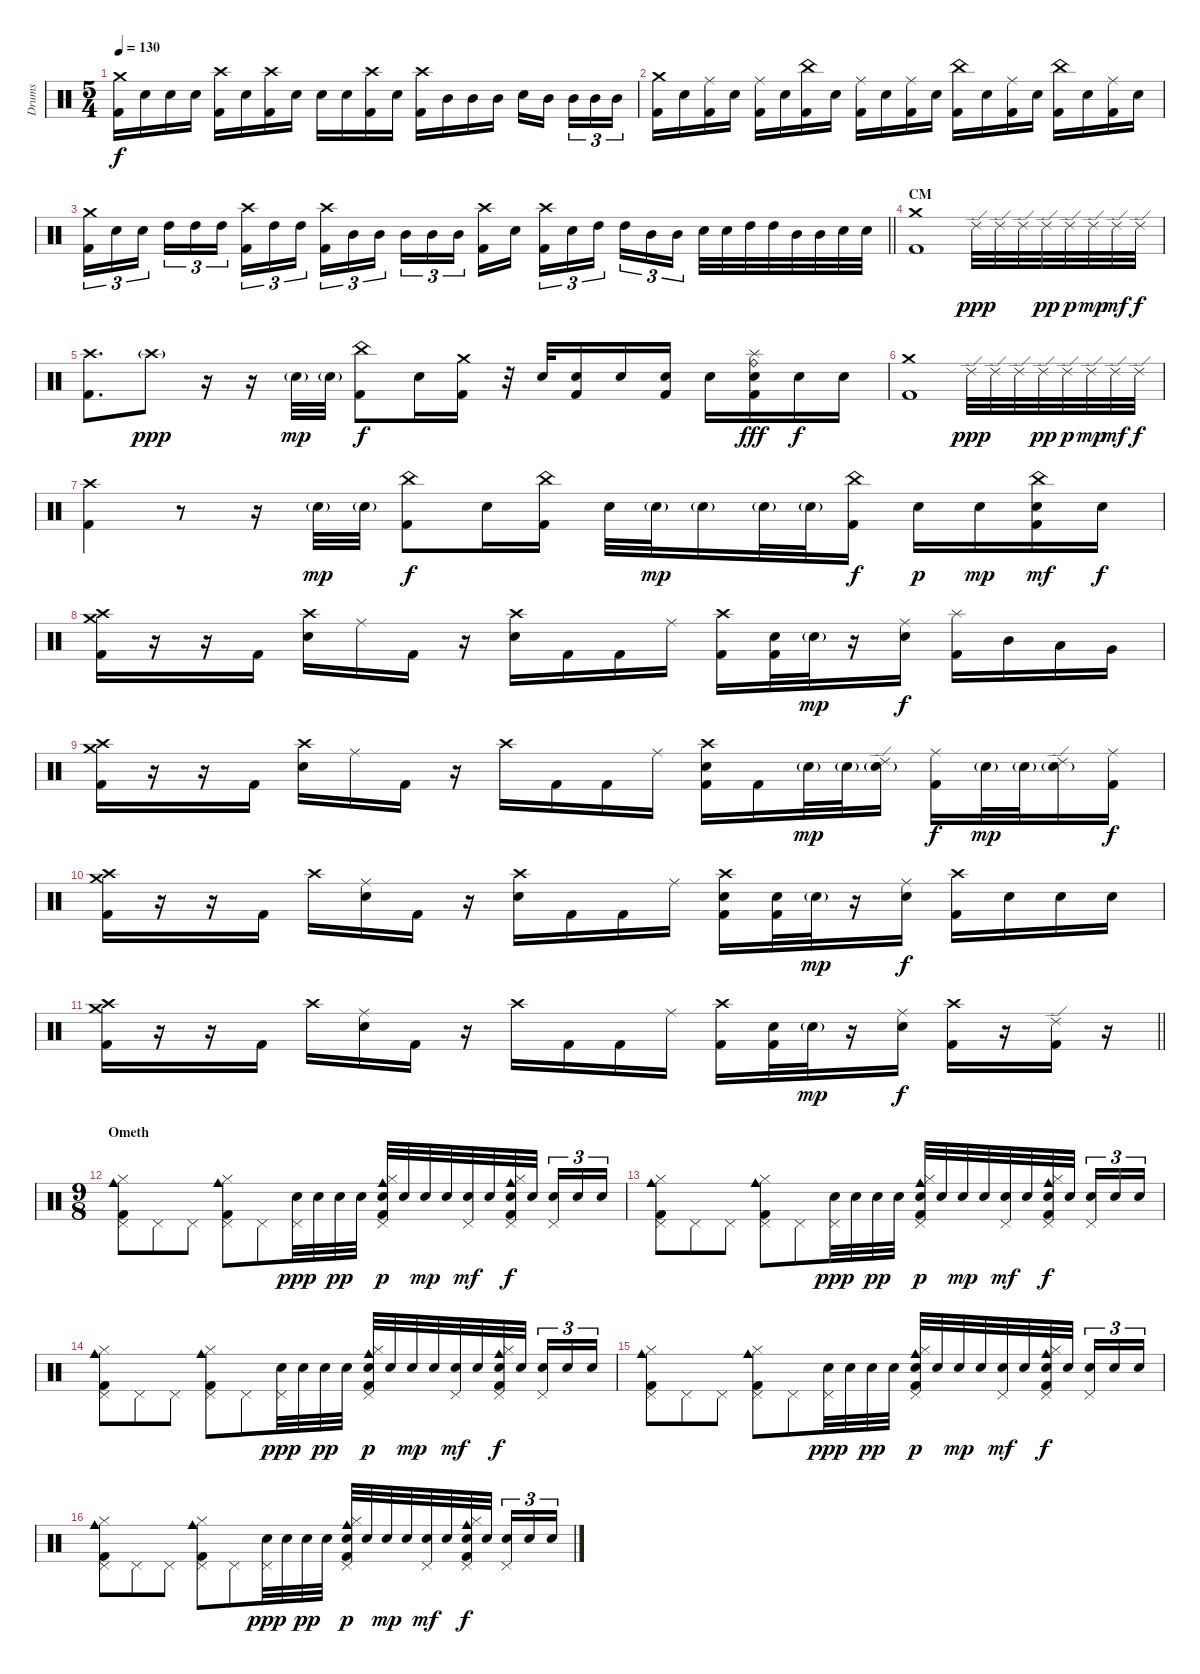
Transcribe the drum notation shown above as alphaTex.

\track ("Drums" "Drums") {instrument percussion}
\staff {score}
\articulation defaults
\ts (5 4)
\tempo 130
\clef neutral
\ks c
("Crash medium (hit)" "Kick (hit) 2").16{dy f} "Electric Snare (hit)".16 "Electric Snare (hit)".16 "Electric Snare (hit)".16 ("Crash high (hit)" "Kick (hit) 2").16 "Electric Snare (hit)".16 ("Crash high (hit)" "Kick (hit) 2").16 "Electric Snare (hit)".16 "Electric Snare (hit)".16 "Electric Snare (hit)".16 ("Crash high (hit)" "Kick (hit) 2").16 "Electric Snare (hit)".16 ("Crash high (hit)" "Kick (hit) 2").16 "Mid Tom (hit)".16 "Mid Tom (hit)".16 "Mid Tom (hit)".16 "Electric Snare (hit)".16 "Mid Tom (hit)".16{beam splitsecondary} "Mid Tom (hit)".16{tu (3 2)} "Mid Tom (hit)".16{tu (3 2)} "Mid Tom (hit)".16{tu (3 2)} |
("Crash medium (hit)" "Kick (hit) 2").16 "Electric Snare (hit)".16 ("Ride (middle)" "Kick (hit) 2").16 "Electric Snare (hit)".16 ("Ride (middle)" "Kick (hit) 2").16 "Electric Snare (hit)".16 ("China (hit)" "Kick (hit) 2").16 "Electric Snare (hit)".16 ("Ride (middle)" "Kick (hit) 2").16 "Electric Snare (hit)".16 ("Ride (middle)" "Kick (hit) 2").16 "Electric Snare (hit)".16 ("China (hit)" "Kick (hit) 2").16 "Electric Snare (hit)".16 ("Ride (middle)" "Kick (hit) 2").16 "Electric Snare (hit)".16 ("China (hit)" "Kick (hit) 2").16 "Electric Snare (hit)".16 ("Ride (middle)" "Kick (hit) 2").16 "Electric Snare (hit)".16 |
\barLineRight lightlight
("Crash medium (hit)" "Kick (hit) 2").16{tu (3 2)} "Electric Snare (hit)".16{tu (3 2)} "Electric Snare (hit)".16{tu (3 2) beam splitsecondary} "High Tom (hit)".16{tu (3 2)} "High Tom (hit)".16{tu (3 2)} "High Tom (hit)".16{tu (3 2)} ("Crash high (hit)" "Kick (hit) 2").16{tu (3 2)} "High Tom (hit)".16{tu (3 2)} "High Tom (hit)".16{tu (3 2) beam splitsecondary} ("Crash high (hit)" "Kick (hit) 2").16{tu (3 2)} "Mid Tom (hit)".16{tu (3 2)} "Mid Tom (hit)".16{tu (3 2)} "Mid Tom (hit)".16{tu (3 2)} "Mid Tom (hit)".16{tu (3 2)} "Mid Tom (hit)".16{tu (3 2) beam splitsecondary} ("Crash high (hit)" "Kick (hit) 2").16 "Electric Snare (hit)".16 ("Crash high (hit)" "Kick (hit) 2").16{tu (3 2)} "Electric Snare (hit)".16{tu (3 2)} "High Tom (hit)".16{tu (3 2) beam splitsecondary} "High Tom (hit)".16{tu (3 2)} "Mid Tom (hit)".16{tu (3 2)} "Mid Tom (hit)".16{tu (3 2)} "Electric Snare (hit)".32 "Electric Snare (hit)".32 "High Tom (hit)".32 "High Tom (hit)".32 "Mid Tom (hit)".32 "Mid Tom (hit)".32 "Electric Snare (hit)".32 "Electric Snare (hit)".32 |
\section ("" "CM")
("Crash medium (hit)" "Kick (hit) 2").1 "Ride (edge) 2".32{dy ppp} "Ride (edge) 2".32 "Ride (edge) 2".32 "Ride (edge) 2".32{dy pp} "Ride (edge) 2".32{dy p} "Ride (edge) 2".32{dy mp} "Ride (edge) 2".32{dy mf} "Ride (edge) 2".32{dy f} |
("Crash high (hit)" "Kick (hit) 2").8{d} "Crash high (hit)"{g}.8{dy ppp} r.16 r.16 "Electric Snare (hit)"{g}.32{dy mp} "Electric Snare (hit)"{g}.32 ("China (hit)" "Kick (hit) 2").8{dy f} "Electric Snare (hit)".16 ("Crash medium (hit)" "Kick (hit) 2").16 r.32 "Electric Snare (hit)".32 ("Electric Snare (hit)" "Kick (hit) 2").16 "Electric Snare (hit)".16 ("Electric Snare (hit)" "Kick (hit) 2").16 "Electric Snare (hit)".16 ("Splash (hit)" "Ride (bell)" "Electric Snare (hit)" "Kick (hit) 2").16{dy fff} "Electric Snare (hit)".16{dy f} "Electric Snare (hit)".16 |
("Crash medium (hit)" "Kick (hit) 2").1 "Ride (edge) 2".32{dy ppp} "Ride (edge) 2".32 "Ride (edge) 2".32 "Ride (edge) 2".32{dy pp} "Ride (edge) 2".32{dy p} "Ride (edge) 2".32{dy mp} "Ride (edge) 2".32{dy mf} "Ride (edge) 2".32{dy f} |
("Crash high (hit)" "Kick (hit) 2").4 r.8 r.16 "Electric Snare (hit)"{g}.32{dy mp} "Electric Snare (hit)"{g}.32 ("China (hit)" "Kick (hit) 2").8{dy f} "Electric Snare (hit)".16 ("China (hit)" "Kick (hit) 2").16 "Electric Snare (hit)".32 "Electric Snare (hit)"{g}.32{dy mp} "Electric Snare (hit)"{g}.16 "Electric Snare (hit)"{g}.32 "Electric Snare (hit)"{g}.32 ("China (hit)" "Kick (hit) 2").16{dy f} "Electric Snare (hit)".16{dy p} "Electric Snare (hit)".16{dy mp} ("China (hit)" "Electric Snare (hit)" "Kick (hit) 2").16{dy mf} "Electric Snare (hit)".16{dy f} |
("Crash high (hit)" "Crash medium (hit)" "Kick (hit) 2").16 r.16 r.16 "Kick (hit) 2".16 ("Crash high (hit)" "Electric Snare (hit)").16 "Ride (middle)".16 "Kick (hit) 2".16 r.16 ("Crash high (hit)" "Electric Snare (hit)").16 "Kick (hit) 2".16 "Kick (hit) 2".16 "Ride (middle)".16 ("Crash high (hit)" "Kick (hit) 2").16 ("Electric Snare (hit)" "Kick (hit) 2").32 "Electric Snare (hit)"{g}.32{dy mp} r.16 ("Ride (middle)" "Electric Snare (hit)").16{dy f} ("Splash (hit)" "Kick (hit) 2").16 "Mid Tom (hit)".16 "Low Tom (hit)".16 "Very Low Tom (hit)".16 |
("Crash high (hit)" "Crash medium (hit)" "Kick (hit) 2").16 r.16 r.16 "Kick (hit) 2".16 ("Crash high (hit)" "Electric Snare (hit)").16 "Ride (middle)".16 "Kick (hit) 2".16 r.16 "Crash high (hit)".16 "Kick (hit) 2".16 "Kick (hit) 2".16 "Ride (middle)".16 ("Crash high (hit)" "Electric Snare (hit)" "Kick (hit) 2").16 "Kick (hit) 2".16 "Electric Snare (hit)"{g}.32{dy mp} "Electric Snare (hit)"{g}.32 ("Ride (edge) 2" "Electric Snare (hit)"{g}).16 ("Ride (middle)" "Kick (hit) 2").16{dy f} "Electric Snare (hit)"{g}.32{dy mp} "Electric Snare (hit)"{g}.32 ("Ride (edge) 2" "Electric Snare (hit)"{g}).16 ("Ride (middle)" "Kick (hit) 2").16{dy f} |
("Crash high (hit)" "Crash medium (hit)" "Kick (hit) 2").16 r.16 r.16 "Kick (hit) 2".16 "Crash high (hit)".16 ("Ride (middle)" "Electric Snare (hit)").16 "Kick (hit) 2".16 r.16 ("Crash high (hit)" "Electric Snare (hit)").16 "Kick (hit) 2".16 "Kick (hit) 2".16 "Ride (middle)".16 ("Crash high (hit)" "Electric Snare (hit)" "Kick (hit) 2").16 ("Electric Snare (hit)" "Kick (hit) 2").32 "Electric Snare (hit)"{g}.32{dy mp} r.16 ("Ride (middle)" "Electric Snare (hit)").16{dy f} ("Crash high (hit)" "Kick (hit) 2").16 "Electric Snare (hit)".16 "Electric Snare (hit)".16 "Electric Snare (hit)".16 |
\barLineRight lightlight
("Crash high (hit)" "Crash medium (hit)" "Kick (hit) 2").16 r.16 r.16 "Kick (hit) 2".16 "Crash high (hit)".16 ("Ride (middle)" "Electric Snare (hit)").16 "Kick (hit) 2".16 r.16 "Crash high (hit)".16 "Kick (hit) 2".16 "Kick (hit) 2".16 "Ride (middle)".16 ("Crash high (hit)" "Kick (hit) 2").16 ("Electric Snare (hit)" "Kick (hit) 2").32 "Electric Snare (hit)"{g}.32{dy mp} r.16 ("Ride (middle)" "Electric Snare (hit)").16{dy f} ("Crash high (hit)" "Kick (hit) 2").16 r.16 ("Ride (edge) 2" "Kick (hit) 2").16 r.16 |
\ts (9 8)
\section ("" "Ometh")
("Cowbell medium (hit)" "Pedal Hi-Hat (hit)" "Hi-Hat (closed)" "Kick (hit) 2").8{volume 16} "Pedal Hi-Hat (hit)".8 "Pedal Hi-Hat (hit)".8 ("Cowbell medium (hit)" "Pedal Hi-Hat (hit)" "Hi-Hat (closed)" "Kick (hit) 2").8 "Pedal Hi-Hat (hit)".8 ("Pedal Hi-Hat (hit)" "Snare (hit) 2").32{dy ppp} "Snare (hit) 2".32 "Snare (hit) 2".32{dy pp} "Snare (hit) 2".32 ("Hi-Hat (closed)" "Cowbell medium (hit)" "Pedal Hi-Hat (hit)" "Snare (hit) 2" "Kick (hit) 2").32{dy p} "Snare (hit) 2".32 "Snare (hit) 2".32{dy mp} "Snare (hit) 2".32 ("Pedal Hi-Hat (hit)" "Snare (hit) 2").32{dy mf} "Snare (hit) 2".32 ("Hi-Hat (closed)" "Cowbell medium (hit)" "Pedal Hi-Hat (hit)" "Snare (hit) 2" "Kick (hit) 2").32{dy f} "Snare (hit) 2".32{beam splitsecondary} ("Pedal Hi-Hat (hit)" "Snare (hit) 2").16{tu (3 2)} "Snare (hit) 2".16{tu (3 2)} "Snare (hit) 2".16{tu (3 2)} |
("Cowbell medium (hit)" "Pedal Hi-Hat (hit)" "Hi-Hat (closed)" "Kick (hit) 2").8 "Pedal Hi-Hat (hit)".8 "Pedal Hi-Hat (hit)".8 ("Cowbell medium (hit)" "Pedal Hi-Hat (hit)" "Hi-Hat (closed)" "Kick (hit) 2").8 "Pedal Hi-Hat (hit)".8 ("Pedal Hi-Hat (hit)" "Snare (hit) 2").32{dy ppp} "Snare (hit) 2".32 "Snare (hit) 2".32{dy pp} "Snare (hit) 2".32 ("Hi-Hat (closed)" "Cowbell medium (hit)" "Pedal Hi-Hat (hit)" "Snare (hit) 2" "Kick (hit) 2").32{dy p} "Snare (hit) 2".32 "Snare (hit) 2".32{dy mp} "Snare (hit) 2".32 ("Pedal Hi-Hat (hit)" "Snare (hit) 2").32{dy mf} "Snare (hit) 2".32 ("Hi-Hat (closed)" "Cowbell medium (hit)" "Pedal Hi-Hat (hit)" "Snare (hit) 2" "Kick (hit) 2").32{dy f} "Snare (hit) 2".32{beam splitsecondary} ("Pedal Hi-Hat (hit)" "Snare (hit) 2").16{tu (3 2)} "Snare (hit) 2".16{tu (3 2)} "Snare (hit) 2".16{tu (3 2)} |
("Cowbell medium (hit)" "Pedal Hi-Hat (hit)" "Hi-Hat (closed)" "Kick (hit) 2").8 "Pedal Hi-Hat (hit)".8 "Pedal Hi-Hat (hit)".8 ("Cowbell medium (hit)" "Pedal Hi-Hat (hit)" "Hi-Hat (closed)" "Kick (hit) 2").8 "Pedal Hi-Hat (hit)".8 ("Pedal Hi-Hat (hit)" "Snare (hit) 2").32{dy ppp} "Snare (hit) 2".32 "Snare (hit) 2".32{dy pp} "Snare (hit) 2".32 ("Hi-Hat (closed)" "Cowbell medium (hit)" "Pedal Hi-Hat (hit)" "Snare (hit) 2" "Kick (hit) 2").32{dy p} "Snare (hit) 2".32 "Snare (hit) 2".32{dy mp} "Snare (hit) 2".32 ("Pedal Hi-Hat (hit)" "Snare (hit) 2").32{dy mf} "Snare (hit) 2".32 ("Hi-Hat (closed)" "Cowbell medium (hit)" "Pedal Hi-Hat (hit)" "Snare (hit) 2" "Kick (hit) 2").32{dy f} "Snare (hit) 2".32{beam splitsecondary} ("Pedal Hi-Hat (hit)" "Snare (hit) 2").16{tu (3 2)} "Snare (hit) 2".16{tu (3 2)} "Snare (hit) 2".16{tu (3 2)} |
("Cowbell medium (hit)" "Pedal Hi-Hat (hit)" "Hi-Hat (closed)" "Kick (hit) 2").8 "Pedal Hi-Hat (hit)".8 "Pedal Hi-Hat (hit)".8 ("Cowbell medium (hit)" "Pedal Hi-Hat (hit)" "Hi-Hat (closed)" "Kick (hit) 2").8 "Pedal Hi-Hat (hit)".8 ("Pedal Hi-Hat (hit)" "Snare (hit) 2").32{dy ppp} "Snare (hit) 2".32 "Snare (hit) 2".32{dy pp} "Snare (hit) 2".32 ("Hi-Hat (closed)" "Cowbell medium (hit)" "Pedal Hi-Hat (hit)" "Snare (hit) 2" "Kick (hit) 2").32{dy p} "Snare (hit) 2".32 "Snare (hit) 2".32{dy mp} "Snare (hit) 2".32 ("Pedal Hi-Hat (hit)" "Snare (hit) 2").32{dy mf} "Snare (hit) 2".32 ("Hi-Hat (closed)" "Cowbell medium (hit)" "Pedal Hi-Hat (hit)" "Snare (hit) 2" "Kick (hit) 2").32{dy f} "Snare (hit) 2".32{beam splitsecondary} ("Pedal Hi-Hat (hit)" "Snare (hit) 2").16{tu (3 2)} "Snare (hit) 2".16{tu (3 2)} "Snare (hit) 2".16{tu (3 2)} |
("Cowbell medium (hit)" "Pedal Hi-Hat (hit)" "Hi-Hat (closed)" "Kick (hit) 2").8 "Pedal Hi-Hat (hit)".8 "Pedal Hi-Hat (hit)".8 ("Cowbell medium (hit)" "Pedal Hi-Hat (hit)" "Hi-Hat (closed)" "Kick (hit) 2").8 "Pedal Hi-Hat (hit)".8 ("Pedal Hi-Hat (hit)" "Snare (hit) 2").32{dy ppp} "Snare (hit) 2".32 "Snare (hit) 2".32{dy pp} "Snare (hit) 2".32 ("Hi-Hat (closed)" "Cowbell medium (hit)" "Pedal Hi-Hat (hit)" "Snare (hit) 2" "Kick (hit) 2").32{dy p} "Snare (hit) 2".32 "Snare (hit) 2".32{dy mp} "Snare (hit) 2".32 ("Pedal Hi-Hat (hit)" "Snare (hit) 2").32{dy mf} "Snare (hit) 2".32 ("Hi-Hat (closed)" "Cowbell medium (hit)" "Pedal Hi-Hat (hit)" "Snare (hit) 2" "Kick (hit) 2").32{dy f} "Snare (hit) 2".32{beam splitsecondary} ("Pedal Hi-Hat (hit)" "Snare (hit) 2").16{tu (3 2)} "Snare (hit) 2".16{tu (3 2)} "Snare (hit) 2".16{tu (3 2)}
